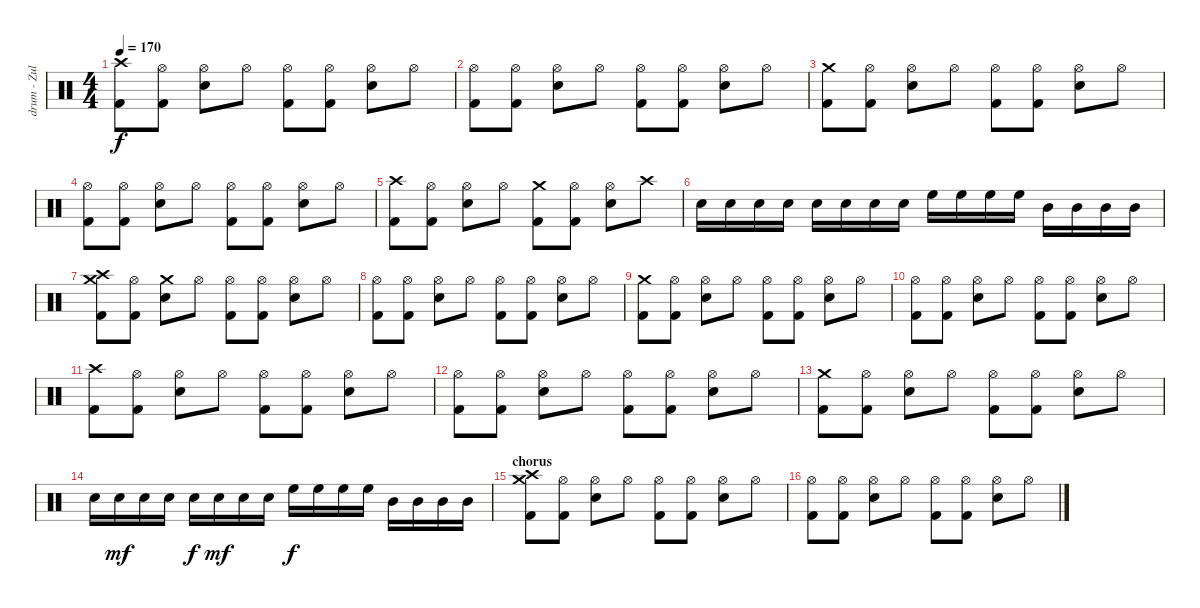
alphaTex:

\track ("drum - Zul ???" "drum - Zul") {instrument percussion}
\staff {score}
\articulation defaults
\ts (4 4)
\tempo 170
\clef neutral
\ks c
("Crash high (hit)" "Kick (hit) 2").8{dy f} ("Hi-Hat (open)" "Kick (hit) 2").8 ("Hi-Hat (open)" "Snare (hit) 2").8 "Hi-Hat (open)".8 ("Hi-Hat (open)" "Kick (hit) 2").8 ("Hi-Hat (open)" "Kick (hit) 2").8 ("Hi-Hat (open)" "Snare (hit) 2").8 "Hi-Hat (open)".8 |
("Hi-Hat (open)" "Kick (hit) 2").8 ("Hi-Hat (open)" "Kick (hit) 2").8 ("Hi-Hat (open)" "Snare (hit) 2").8 "Hi-Hat (open)".8 ("Hi-Hat (open)" "Kick (hit) 2").8 ("Hi-Hat (open)" "Kick (hit) 2").8 ("Hi-Hat (open)" "Snare (hit) 2").8 "Hi-Hat (open)".8 |
("Crash medium (hit)" "Kick (hit) 2").8 ("Hi-Hat (open)" "Kick (hit) 2").8 ("Hi-Hat (open)" "Snare (hit) 2").8 "Hi-Hat (open)".8 ("Hi-Hat (open)" "Kick (hit) 2").8 ("Hi-Hat (open)" "Kick (hit) 2").8 ("Hi-Hat (open)" "Snare (hit) 2").8 "Hi-Hat (open)".8 |
("Hi-Hat (open)" "Kick (hit) 2").8 ("Hi-Hat (open)" "Kick (hit) 2").8 ("Hi-Hat (open)" "Snare (hit) 2").8 "Hi-Hat (open)".8 ("Hi-Hat (open)" "Kick (hit) 2").8 ("Hi-Hat (open)" "Kick (hit) 2").8 ("Hi-Hat (open)" "Snare (hit) 2").8 "Hi-Hat (open)".8 |
("Crash high (hit)" "Kick (hit) 2").8 ("Hi-Hat (open)" "Kick (hit) 2").8 ("Hi-Hat (open)" "Snare (hit) 2").8 "Hi-Hat (open)".8 ("Crash medium (hit)" "Kick (hit) 2").8 ("Hi-Hat (open)" "Kick (hit) 2").8 ("Hi-Hat (open)" "Snare (hit) 2").8 "Crash high (hit)".8 |
"Snare (hit) 2".16 "Snare (hit) 2".16 "Snare (hit) 2".16 "Snare (hit) 2".16 "Snare (hit) 2".16 "Snare (hit) 2".16 "Snare (hit) 2".16 "Snare (hit) 2".16 "High Floor Tom (hit)".16 "High Floor Tom (hit)".16 "High Floor Tom (hit)".16 "High Floor Tom (hit)".16 "Mid Tom (hit)".16 "Mid Tom (hit)".16 "Mid Tom (hit)".16 "Mid Tom (hit)".16 |
("Crash high (hit)" "Crash medium (hit)" "Kick (hit) 2").8 ("Hi-Hat (open)" "Kick (hit) 2").8 ("Crash medium (hit)" "Snare (hit) 2").8 "Hi-Hat (open)".8 ("Hi-Hat (open)" "Kick (hit) 2").8 ("Hi-Hat (open)" "Kick (hit) 2").8 ("Hi-Hat (open)" "Snare (hit) 2").8 "Hi-Hat (open)".8 |
("Hi-Hat (open)" "Kick (hit) 2").8 ("Hi-Hat (open)" "Kick (hit) 2").8 ("Hi-Hat (open)" "Snare (hit) 2").8 "Hi-Hat (open)".8 ("Hi-Hat (open)" "Kick (hit) 2").8 ("Hi-Hat (open)" "Kick (hit) 2").8 ("Hi-Hat (open)" "Snare (hit) 2").8 "Hi-Hat (open)".8 |
("Crash medium (hit)" "Kick (hit) 2").8 ("Hi-Hat (open)" "Kick (hit) 2").8 ("Hi-Hat (open)" "Snare (hit) 2").8 "Hi-Hat (open)".8 ("Hi-Hat (open)" "Kick (hit) 2").8 ("Hi-Hat (open)" "Kick (hit) 2").8 ("Hi-Hat (open)" "Snare (hit) 2").8 "Hi-Hat (open)".8 |
("Hi-Hat (open)" "Kick (hit) 2").8 ("Hi-Hat (open)" "Kick (hit) 2").8 ("Hi-Hat (open)" "Snare (hit) 2").8 "Hi-Hat (open)".8 ("Hi-Hat (open)" "Kick (hit) 2").8 ("Hi-Hat (open)" "Kick (hit) 2").8 ("Hi-Hat (open)" "Snare (hit) 2").8 "Hi-Hat (open)".8 |
("Crash high (hit)" "Kick (hit) 2").8 ("Hi-Hat (open)" "Kick (hit) 2").8 ("Hi-Hat (open)" "Snare (hit) 2").8 "Hi-Hat (open)".8 ("Hi-Hat (open)" "Kick (hit) 2").8 ("Hi-Hat (open)" "Kick (hit) 2").8 ("Hi-Hat (open)" "Snare (hit) 2").8 "Hi-Hat (open)".8 |
("Hi-Hat (open)" "Kick (hit) 2").8 ("Hi-Hat (open)" "Kick (hit) 2").8 ("Hi-Hat (open)" "Snare (hit) 2").8 "Hi-Hat (open)".8 ("Hi-Hat (open)" "Kick (hit) 2").8 ("Hi-Hat (open)" "Kick (hit) 2").8 ("Hi-Hat (open)" "Snare (hit) 2").8 "Hi-Hat (open)".8 |
("Crash medium (hit)" "Kick (hit) 2").8 ("Hi-Hat (open)" "Kick (hit) 2").8 ("Hi-Hat (open)" "Snare (hit) 2").8 "Hi-Hat (open)".8 ("Hi-Hat (open)" "Kick (hit) 2").8 ("Hi-Hat (open)" "Kick (hit) 2").8 ("Hi-Hat (open)" "Snare (hit) 2").8 "Hi-Hat (open)".8 |
"Snare (hit) 2".16 "Snare (hit) 2".16{dy mf} "Snare (hit) 2".16 "Snare (hit) 2".16 "Snare (hit) 2".16{dy f} "Snare (hit) 2".16{dy mf} "Snare (hit) 2".16 "Snare (hit) 2".16 "High Floor Tom (hit)".16{dy f} "High Floor Tom (hit)".16 "High Floor Tom (hit)".16 "High Floor Tom (hit)".16 "Mid Tom (hit)".16 "Mid Tom (hit)".16 "Mid Tom (hit)".16 "Mid Tom (hit)".16 |
\section ("" "chorus")
("Crash high (hit)" "Crash medium (hit)" "Kick (hit) 2").8 ("Hi-Hat (open)" "Kick (hit) 2").8 ("Hi-Hat (open)" "Snare (hit) 2").8 "Hi-Hat (open)".8 ("Hi-Hat (open)" "Kick (hit) 2").8 ("Hi-Hat (open)" "Kick (hit) 2").8 ("Hi-Hat (open)" "Snare (hit) 2").8 "Hi-Hat (open)".8 |
("Hi-Hat (open)" "Kick (hit) 2").8 ("Hi-Hat (open)" "Kick (hit) 2").8 ("Hi-Hat (open)" "Snare (hit) 2").8 "Hi-Hat (open)".8 ("Hi-Hat (open)" "Kick (hit) 2").8 ("Hi-Hat (open)" "Kick (hit) 2").8 ("Hi-Hat (open)" "Snare (hit) 2").8 "Hi-Hat (open)".8
